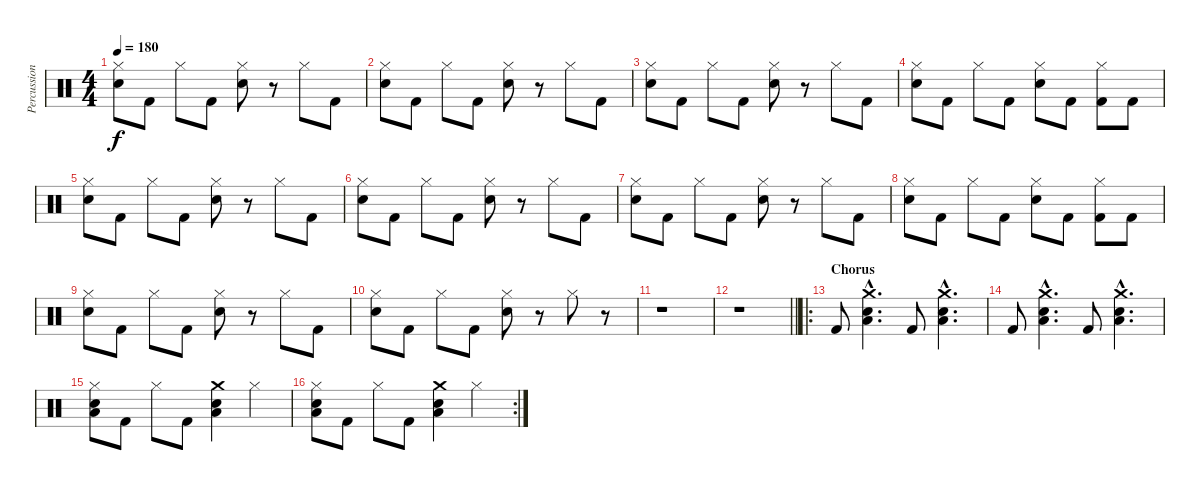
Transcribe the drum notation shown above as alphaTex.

\track ("Percussion" "Percussion") {instrument percussion}
\staff {score}
\articulation defaults
\ts (4 4)
\tempo 180
\clef neutral
\ks c
("Hi-Hat (closed)" "Electric Snare (hit)").8{dy f} "Kick (hit) 2".8 "Hi-Hat (closed)".8 "Kick (hit) 2".8 ("Hi-Hat (closed)" "Electric Snare (hit)").8 r.8 "Hi-Hat (closed)".8 "Kick (hit) 2".8 |
("Hi-Hat (closed)" "Electric Snare (hit)").8 "Kick (hit) 2".8 "Hi-Hat (closed)".8 "Kick (hit) 2".8 ("Hi-Hat (closed)" "Electric Snare (hit)").8 r.8 "Hi-Hat (closed)".8 "Kick (hit) 2".8 |
("Hi-Hat (closed)" "Electric Snare (hit)").8 "Kick (hit) 2".8 "Hi-Hat (closed)".8 "Kick (hit) 2".8 ("Hi-Hat (closed)" "Electric Snare (hit)").8 r.8 "Hi-Hat (closed)".8 "Kick (hit) 2".8 |
("Hi-Hat (closed)" "Electric Snare (hit)").8 "Kick (hit) 2".8 "Hi-Hat (closed)".8 "Kick (hit) 2".8 ("Hi-Hat (closed)" "Electric Snare (hit)").8 "Kick (hit) 2".8 ("Hi-Hat (closed)" "Kick (hit) 2").8 "Kick (hit) 2".8 |
("Hi-Hat (closed)" "Electric Snare (hit)").8 "Kick (hit) 2".8 "Hi-Hat (closed)".8 "Kick (hit) 2".8 ("Hi-Hat (closed)" "Electric Snare (hit)").8 r.8 "Hi-Hat (closed)".8 "Kick (hit) 2".8 |
("Hi-Hat (closed)" "Electric Snare (hit)").8 "Kick (hit) 2".8 "Hi-Hat (closed)".8 "Kick (hit) 2".8 ("Hi-Hat (closed)" "Electric Snare (hit)").8 r.8 "Hi-Hat (closed)".8 "Kick (hit) 2".8 |
("Hi-Hat (closed)" "Electric Snare (hit)").8 "Kick (hit) 2".8 "Hi-Hat (closed)".8 "Kick (hit) 2".8 ("Hi-Hat (closed)" "Electric Snare (hit)").8 r.8 "Hi-Hat (closed)".8 "Kick (hit) 2".8 |
("Hi-Hat (closed)" "Electric Snare (hit)").8 "Kick (hit) 2".8 "Hi-Hat (closed)".8 "Kick (hit) 2".8 ("Hi-Hat (closed)" "Electric Snare (hit)").8 "Kick (hit) 2".8 ("Hi-Hat (closed)" "Kick (hit) 2").8 "Kick (hit) 2".8 |
("Hi-Hat (closed)" "Electric Snare (hit)").8 "Kick (hit) 2".8 "Hi-Hat (closed)".8 "Kick (hit) 2".8 ("Hi-Hat (closed)" "Electric Snare (hit)").8 r.8 "Hi-Hat (closed)".8 "Kick (hit) 2".8 |
("Hi-Hat (closed)" "Electric Snare (hit)").8 "Kick (hit) 2".8 "Hi-Hat (closed)".8 "Kick (hit) 2".8 ("Hi-Hat (closed)" "Electric Snare (hit)").8 r.8 "Hi-Hat (closed)".8 r.8 |
r.1 |
\barLineRight lightlight
r.1 |
\ro
\section ("" "Chorus")
"Kick (hit) 2".8 ("Crash medium (hit)"{hac} "Low Floor Tom (hit)"{hac} "Electric Snare (hit)"{hac}).4{d} "Kick (hit) 2".8 ("Crash medium (hit)"{hac} "Low Floor Tom (hit)"{hac} "Electric Snare (hit)"{hac}).4{d} |
"Kick (hit) 2".8 ("Crash medium (hit)"{hac} "Low Floor Tom (hit)"{hac} "Electric Snare (hit)"{hac}).4{d} "Kick (hit) 2".8 ("Crash medium (hit)"{hac} "Low Floor Tom (hit)"{hac} "Electric Snare (hit)"{hac}).4{d} |
("Hi-Hat (closed)" "Low Floor Tom (hit)" "Electric Snare (hit)").8 "Kick (hit) 2".8 "Hi-Hat (closed)".8 "Kick (hit) 2".8 ("Crash medium (hit)" "Low Floor Tom (hit)" "Electric Snare (hit)").4 "Hi-Hat (closed)".4 |
\rc 2
("Hi-Hat (closed)" "Low Floor Tom (hit)" "Electric Snare (hit)").8 "Kick (hit) 2".8 "Hi-Hat (closed)".8 "Kick (hit) 2".8 ("Crash medium (hit)" "Low Floor Tom (hit)" "Electric Snare (hit)").4 "Hi-Hat (closed)".4
